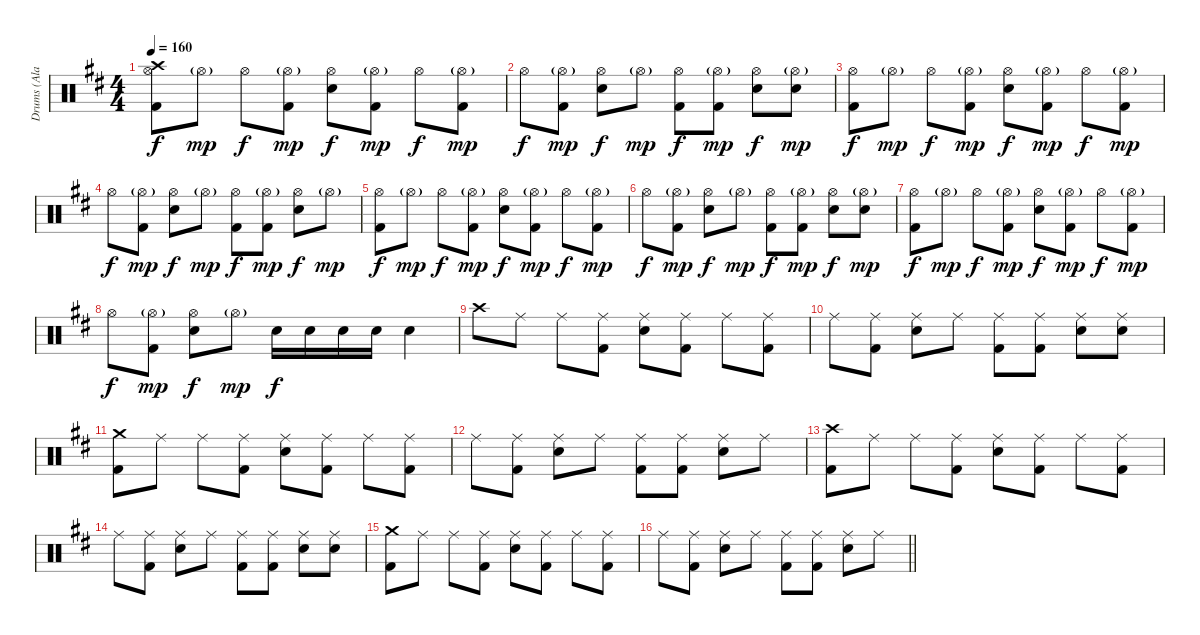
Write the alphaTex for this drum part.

\track ("Drums (Ala Burns)" "Drums (Ala") {instrument percussion}
\staff {score}
\articulation defaults
\ts (4 4)
\tempo 160
\clef neutral
\ks d
("Crash high (hit)" "Hi-Hat (open)" "Kick (hit) 2").8{dy f} "Hi-Hat (open)"{g}.8{dy mp} "Hi-Hat (open)".8{dy f} ("Hi-Hat (open)"{g} "Kick (hit) 2").8{dy mp} ("Snare (hit) 2" "Hi-Hat (open)").8{dy f} ("Hi-Hat (open)"{g} "Kick (hit) 2").8{dy mp} "Hi-Hat (open)".8{dy f} ("Hi-Hat (open)"{g} "Kick (hit) 2").8{dy mp} |
"Hi-Hat (open)".8{dy f} ("Hi-Hat (open)"{g} "Kick (hit) 2").8{dy mp} ("Snare (hit) 2" "Hi-Hat (open)").8{dy f} "Hi-Hat (open)"{g}.8{dy mp} ("Hi-Hat (open)" "Kick (hit) 2").8{dy f} ("Hi-Hat (open)"{g} "Kick (hit) 2").8{dy mp} ("Snare (hit) 2" "Hi-Hat (open)").8{dy f} ("Snare (hit) 2" "Hi-Hat (open)"{g}).8{dy mp} |
("Hi-Hat (open)" "Kick (hit) 2").8{dy f} "Hi-Hat (open)"{g}.8{dy mp} "Hi-Hat (open)".8{dy f} ("Hi-Hat (open)"{g} "Kick (hit) 2").8{dy mp} ("Snare (hit) 2" "Hi-Hat (open)").8{dy f} ("Hi-Hat (open)"{g} "Kick (hit) 2").8{dy mp} "Hi-Hat (open)".8{dy f} ("Hi-Hat (open)"{g} "Kick (hit) 2").8{dy mp} |
"Hi-Hat (open)".8{dy f} ("Hi-Hat (open)"{g} "Kick (hit) 2").8{dy mp} ("Snare (hit) 2" "Hi-Hat (open)").8{dy f} "Hi-Hat (open)"{g}.8{dy mp} ("Hi-Hat (open)" "Kick (hit) 2").8{dy f} ("Hi-Hat (open)"{g} "Kick (hit) 2").8{dy mp} ("Snare (hit) 2" "Hi-Hat (open)").8{dy f} "Hi-Hat (open)"{g}.8{dy mp} |
("Hi-Hat (open)" "Kick (hit) 2").8{dy f} "Hi-Hat (open)"{g}.8{dy mp} "Hi-Hat (open)".8{dy f} ("Hi-Hat (open)"{g} "Kick (hit) 2").8{dy mp} ("Snare (hit) 2" "Hi-Hat (open)").8{dy f} ("Hi-Hat (open)"{g} "Kick (hit) 2").8{dy mp} "Hi-Hat (open)".8{dy f} ("Hi-Hat (open)"{g} "Kick (hit) 2").8{dy mp} |
"Hi-Hat (open)".8{dy f} ("Hi-Hat (open)"{g} "Kick (hit) 2").8{dy mp} ("Snare (hit) 2" "Hi-Hat (open)").8{dy f} "Hi-Hat (open)"{g}.8{dy mp} ("Hi-Hat (open)" "Kick (hit) 2").8{dy f} ("Hi-Hat (open)"{g} "Kick (hit) 2").8{dy mp} ("Snare (hit) 2" "Hi-Hat (open)").8{dy f} ("Snare (hit) 2" "Hi-Hat (open)"{g}).8{dy mp} |
("Hi-Hat (open)" "Kick (hit) 2").8{dy f} "Hi-Hat (open)"{g}.8{dy mp} "Hi-Hat (open)".8{dy f} ("Hi-Hat (open)"{g} "Kick (hit) 2").8{dy mp} ("Snare (hit) 2" "Hi-Hat (open)").8{dy f} ("Hi-Hat (open)"{g} "Kick (hit) 2").8{dy mp} "Hi-Hat (open)".8{dy f} ("Hi-Hat (open)"{g} "Kick (hit) 2").8{dy mp} |
"Hi-Hat (open)".8{dy f} ("Hi-Hat (open)"{g} "Kick (hit) 2").8{dy mp} ("Snare (hit) 2" "Hi-Hat (open)").8{dy f} "Hi-Hat (open)"{g}.8{dy mp} "Snare (hit) 2".16{dy f} "Snare (hit) 2".16 "Snare (hit) 2".16 "Snare (hit) 2".16 "Snare (hit) 2".4 |
"Crash high (hit)".8 "Ride (middle)".8 "Ride (middle)".8 ("Ride (middle)" "Kick (hit) 2").8 ("Ride (middle)" "Snare (hit) 2").8 ("Ride (middle)" "Kick (hit) 2").8 "Ride (middle)".8 ("Ride (middle)" "Kick (hit) 2").8 |
"Ride (middle)".8 ("Ride (middle)" "Kick (hit) 2").8 ("Ride (middle)" "Snare (hit) 2").8 "Ride (middle)".8 ("Ride (middle)" "Kick (hit) 2").8 ("Ride (middle)" "Kick (hit) 2").8 ("Ride (middle)" "Snare (hit) 2").8 ("Ride (middle)" "Snare (hit) 2").8 |
("Crash medium (hit)" "Kick (hit) 2").8 "Ride (middle)".8 "Ride (middle)".8 ("Ride (middle)" "Kick (hit) 2").8 ("Ride (middle)" "Snare (hit) 2").8 ("Ride (middle)" "Kick (hit) 2").8 "Ride (middle)".8 ("Ride (middle)" "Kick (hit) 2").8 |
"Ride (middle)".8 ("Ride (middle)" "Kick (hit) 2").8 ("Ride (middle)" "Snare (hit) 2").8 "Ride (middle)".8 ("Ride (middle)" "Kick (hit) 2").8 ("Ride (middle)" "Kick (hit) 2").8 ("Ride (middle)" "Snare (hit) 2").8 "Ride (middle)".8 |
("Crash high (hit)" "Kick (hit) 2").8 "Ride (middle)".8 "Ride (middle)".8 ("Ride (middle)" "Kick (hit) 2").8 ("Ride (middle)" "Snare (hit) 2").8 ("Ride (middle)" "Kick (hit) 2").8 "Ride (middle)".8 ("Ride (middle)" "Kick (hit) 2").8 |
"Ride (middle)".8 ("Ride (middle)" "Kick (hit) 2").8 ("Ride (middle)" "Snare (hit) 2").8 "Ride (middle)".8 ("Ride (middle)" "Kick (hit) 2").8 ("Ride (middle)" "Kick (hit) 2").8 ("Ride (middle)" "Snare (hit) 2").8 ("Ride (middle)" "Snare (hit) 2").8 |
("Crash medium (hit)" "Kick (hit) 2").8 "Ride (middle)".8 "Ride (middle)".8 ("Ride (middle)" "Kick (hit) 2").8 ("Ride (middle)" "Snare (hit) 2").8 ("Ride (middle)" "Kick (hit) 2").8 "Ride (middle)".8 ("Ride (middle)" "Kick (hit) 2").8 |
\barLineRight lightlight "Ride (middle)".8
("Ride (middle)" "Kick (hit) 2").8 ("Ride (middle)" "Snare (hit) 2").8 "Ride (middle)".8 ("Ride (middle)" "Kick (hit) 2").8 ("Ride (middle)" "Kick (hit) 2").8 ("Ride (middle)" "Snare (hit) 2").8 "Ride (middle)".8
